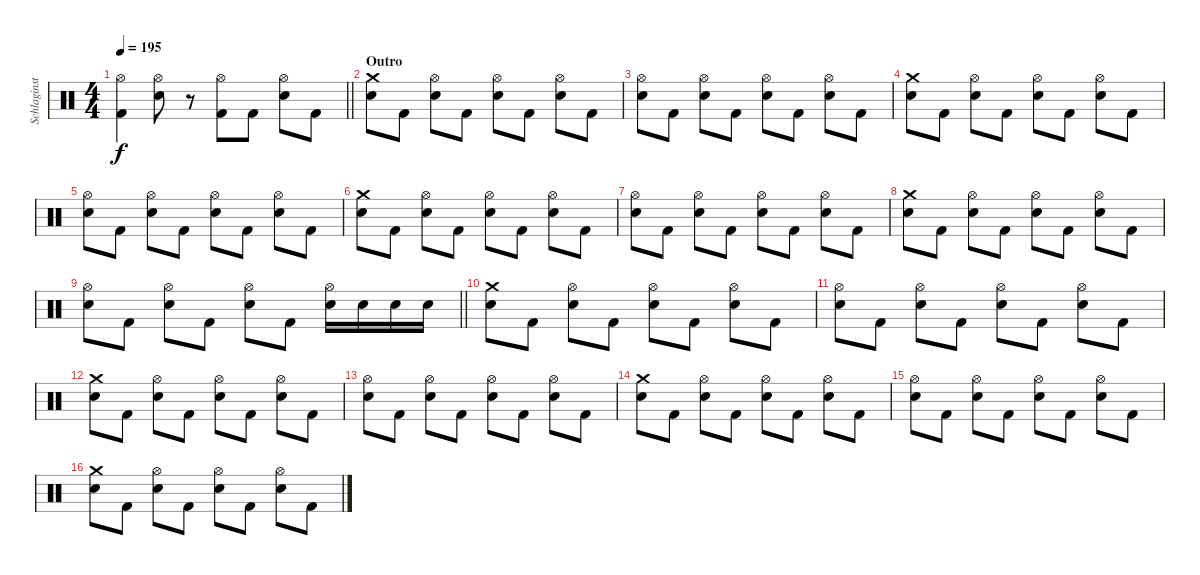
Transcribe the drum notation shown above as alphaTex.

\track ("Schlaginstrumente - Auswahl" "Schlaginst") {instrument percussion}
\staff {score}
\articulation defaults
\ts (4 4)
\tempo 195
\clef neutral
\barLineRight lightlight
\ks c
("Hi-Hat (open)" "Kick (hit) 2").4{dy f} ("Hi-Hat (open)" "Snare (hit) 2").8 r.8 ("Hi-Hat (open)" "Kick (hit) 2").8 "Kick (hit) 2".8 ("Hi-Hat (open)" "Snare (hit) 2").8 "Kick (hit) 2".8 |
\section ("" "Outro")
("Crash medium (hit)" "Snare (hit) 2").8 "Kick (hit) 2".8 ("Hi-Hat (open)" "Snare (hit) 2").8 "Kick (hit) 2".8 ("Hi-Hat (open)" "Snare (hit) 2").8 "Kick (hit) 2".8 ("Hi-Hat (open)" "Snare (hit) 2").8 "Kick (hit) 2".8 |
("Hi-Hat (open)" "Snare (hit) 2").8 "Kick (hit) 2".8 ("Hi-Hat (open)" "Snare (hit) 2").8 "Kick (hit) 2".8 ("Hi-Hat (open)" "Snare (hit) 2").8 "Kick (hit) 2".8 ("Hi-Hat (open)" "Snare (hit) 2").8 "Kick (hit) 2".8 |
("Crash medium (hit)" "Snare (hit) 2").8 "Kick (hit) 2".8 ("Hi-Hat (open)" "Snare (hit) 2").8 "Kick (hit) 2".8 ("Hi-Hat (open)" "Snare (hit) 2").8 "Kick (hit) 2".8 ("Hi-Hat (open)" "Snare (hit) 2").8 "Kick (hit) 2".8 |
("Hi-Hat (open)" "Snare (hit) 2").8 "Kick (hit) 2".8 ("Hi-Hat (open)" "Snare (hit) 2").8 "Kick (hit) 2".8 ("Hi-Hat (open)" "Snare (hit) 2").8 "Kick (hit) 2".8 ("Hi-Hat (open)" "Snare (hit) 2").8 "Kick (hit) 2".8 |
("Crash medium (hit)" "Snare (hit) 2").8 "Kick (hit) 2".8 ("Hi-Hat (open)" "Snare (hit) 2").8 "Kick (hit) 2".8 ("Hi-Hat (open)" "Snare (hit) 2").8 "Kick (hit) 2".8 ("Hi-Hat (open)" "Snare (hit) 2").8 "Kick (hit) 2".8 |
("Hi-Hat (open)" "Snare (hit) 2").8 "Kick (hit) 2".8 ("Hi-Hat (open)" "Snare (hit) 2").8 "Kick (hit) 2".8 ("Hi-Hat (open)" "Snare (hit) 2").8 "Kick (hit) 2".8 ("Hi-Hat (open)" "Snare (hit) 2").8 "Kick (hit) 2".8 |
("Crash medium (hit)" "Snare (hit) 2").8 "Kick (hit) 2".8 ("Hi-Hat (open)" "Snare (hit) 2").8 "Kick (hit) 2".8 ("Hi-Hat (open)" "Snare (hit) 2").8 "Kick (hit) 2".8 ("Hi-Hat (open)" "Snare (hit) 2").8 "Kick (hit) 2".8 |
\barLineRight lightlight
("Hi-Hat (open)" "Snare (hit) 2").8 "Kick (hit) 2".8 ("Hi-Hat (open)" "Snare (hit) 2").8 "Kick (hit) 2".8 ("Hi-Hat (open)" "Snare (hit) 2").8 "Kick (hit) 2".8 ("Hi-Hat (open)" "Snare (hit) 2").16 "Snare (hit) 2".16 "Snare (hit) 2".16 "Snare (hit) 2".16 |
("Crash medium (hit)" "Snare (hit) 2").8 "Kick (hit) 2".8 ("Hi-Hat (open)" "Snare (hit) 2").8 "Kick (hit) 2".8 ("Hi-Hat (open)" "Snare (hit) 2").8 "Kick (hit) 2".8 ("Hi-Hat (open)" "Snare (hit) 2").8 "Kick (hit) 2".8 |
("Hi-Hat (open)" "Snare (hit) 2").8 "Kick (hit) 2".8 ("Hi-Hat (open)" "Snare (hit) 2").8 "Kick (hit) 2".8 ("Hi-Hat (open)" "Snare (hit) 2").8 "Kick (hit) 2".8 ("Hi-Hat (open)" "Snare (hit) 2").8 "Kick (hit) 2".8 |
("Crash medium (hit)" "Snare (hit) 2").8 "Kick (hit) 2".8 ("Hi-Hat (open)" "Snare (hit) 2").8 "Kick (hit) 2".8 ("Hi-Hat (open)" "Snare (hit) 2").8 "Kick (hit) 2".8 ("Hi-Hat (open)" "Snare (hit) 2").8 "Kick (hit) 2".8 |
("Hi-Hat (open)" "Snare (hit) 2").8 "Kick (hit) 2".8 ("Hi-Hat (open)" "Snare (hit) 2").8 "Kick (hit) 2".8 ("Hi-Hat (open)" "Snare (hit) 2").8 "Kick (hit) 2".8 ("Hi-Hat (open)" "Snare (hit) 2").8 "Kick (hit) 2".8 |
("Crash medium (hit)" "Snare (hit) 2").8 "Kick (hit) 2".8 ("Hi-Hat (open)" "Snare (hit) 2").8 "Kick (hit) 2".8 ("Hi-Hat (open)" "Snare (hit) 2").8 "Kick (hit) 2".8 ("Hi-Hat (open)" "Snare (hit) 2").8 "Kick (hit) 2".8 |
("Hi-Hat (open)" "Snare (hit) 2").8 "Kick (hit) 2".8 ("Hi-Hat (open)" "Snare (hit) 2").8 "Kick (hit) 2".8 ("Hi-Hat (open)" "Snare (hit) 2").8 "Kick (hit) 2".8 ("Hi-Hat (open)" "Snare (hit) 2").8 "Kick (hit) 2".8 |
("Crash medium (hit)" "Snare (hit) 2").8 "Kick (hit) 2".8 ("Hi-Hat (open)" "Snare (hit) 2").8 "Kick (hit) 2".8 ("Hi-Hat (open)" "Snare (hit) 2").8 "Kick (hit) 2".8 ("Hi-Hat (open)" "Snare (hit) 2").8 "Kick (hit) 2".8
